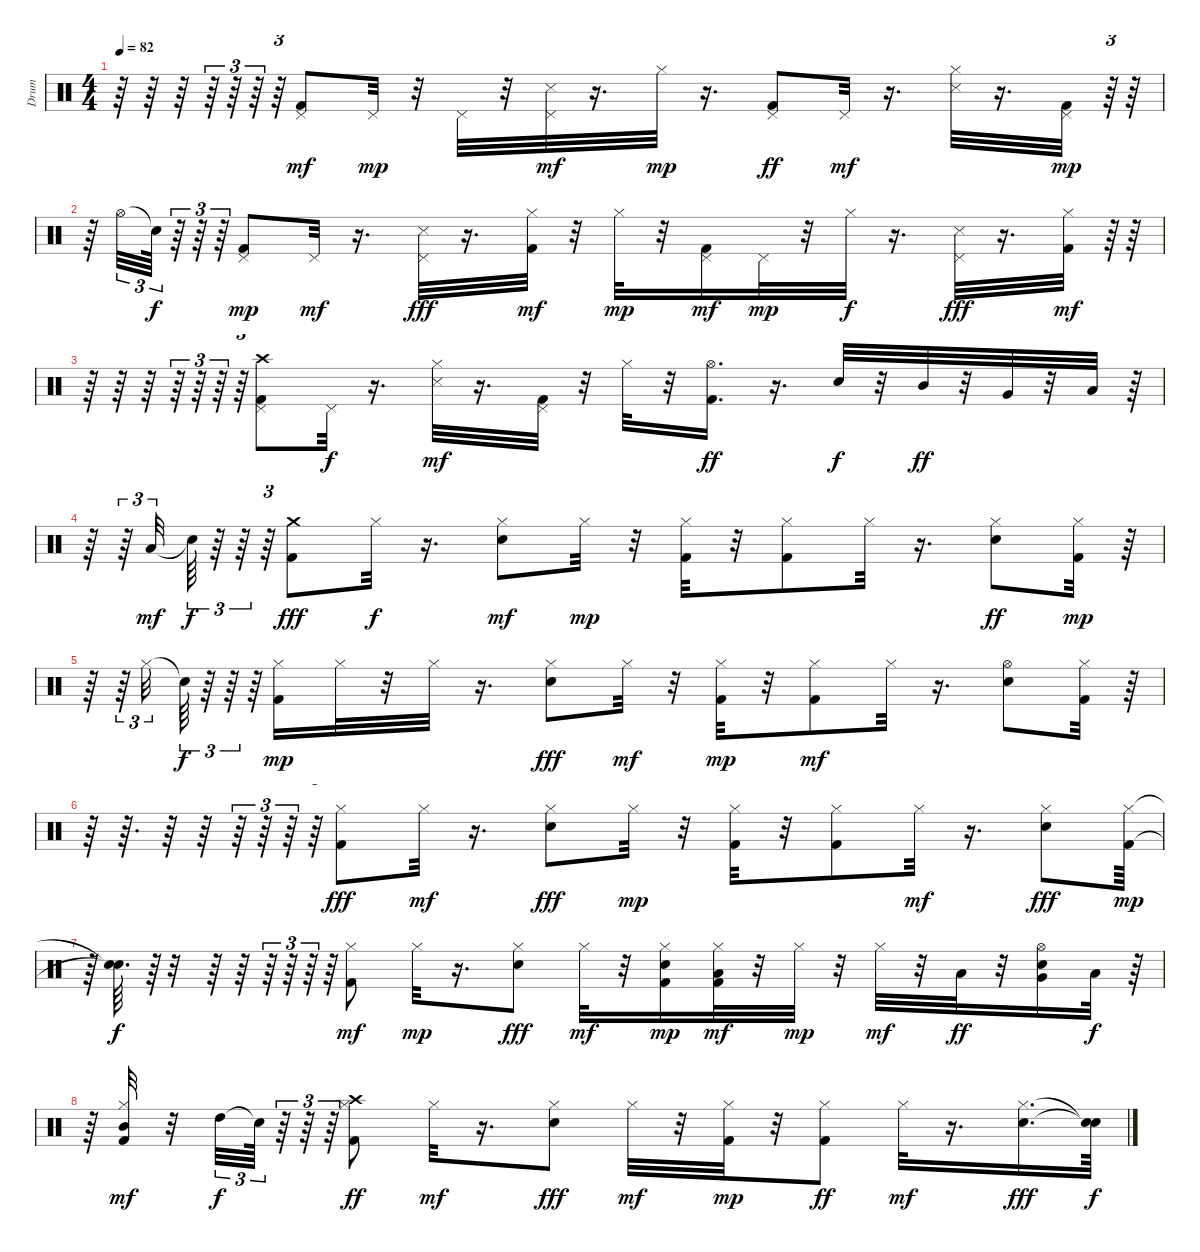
\track ("Drum" "Drum") {instrument percussion}
\staff {score}
\articulation defaults
\ts (4 4)
\tempo 82
\clef neutral
\ks c
r.64{dy mp} r.64 r.64 r.64{tu (3 2)} r.64{tu (3 2)} r.64{tu (3 2)} r.64{tu (3 2)} ("Kick (hit) 2" "Pedal Hi-Hat (hit)").8{dy mf} "Pedal Hi-Hat (hit)".32{dy mp} r.32 "Pedal Hi-Hat (hit)".32 r.32 ("Snare (side stick) 3" "Pedal Hi-Hat (hit)").32{dy mf} r.16{d} "Hi-Hat (closed)".32{dy mp} r.16{d} ("Kick (hit) 2" "Pedal Hi-Hat (hit)").8{dy ff} "Pedal Hi-Hat (hit)".32{dy mf} r.16{d} ("Snare (side stick) 3" "Hi-Hat (closed)").32 r.16{d} ("Kick (hit) 2" "Pedal Hi-Hat (hit)").32{dy mp} r.64{tu (3 2)} r.64 |
r.64 "Hi-Hat (open)".32{tu (3 2)} "Snare (hit)"{t}.64{tu (3 2) dy f} r.64{tu (3 2)} r.64{tu (3 2)} r.64{tu (3 2)} ("Kick (hit) 2" "Pedal Hi-Hat (hit)").8{dy mp} "Pedal Hi-Hat (hit)".32{dy mf} r.16{d} ("Snare (side stick) 3" "Pedal Hi-Hat (hit)").32{dy fff} r.16{d} ("Kick (hit) 2" "Hi-Hat (closed)").32{dy mf} r.32 "Hi-Hat (closed)".32{dy mp} r.32 ("Kick (hit) 2" "Pedal Hi-Hat (hit)").16{dy mf} "Pedal Hi-Hat (hit)".32{dy mp} r.32 "Hi-Hat (closed)".32{dy f} r.16{d} ("Snare (side stick) 3" "Pedal Hi-Hat (hit)").32{dy fff} r.16{d} ("Kick (hit) 2" "Hi-Hat (closed)").32{dy mf} r.64{tu (3 2)} r.64 |
r.64 r.64 r.64 r.64{tu (3 2)} r.64{tu (3 2)} r.64{tu (3 2)} r.64{tu (3 2)} ("Kick (hit) 2" "Pedal Hi-Hat (hit)" "Crash high (hit)").8 "Pedal Hi-Hat (hit)".32{dy f} r.16{d} ("Snare (side stick) 3" "Hi-Hat (closed)").32{dy mf} r.16{d} ("Kick (hit) 2" "Pedal Hi-Hat (hit)").32 r.32 "Hi-Hat (closed)".32 r.32 ("Kick (hit) 2" "Hi-Hat (open)").16{d dy ff} r.16{d} "Electric Snare (hit)".32{dy f} r.32 "Mid Tom (hit)".32{dy ff} r.32 "Very Low Tom (hit)".32 r.32 "Low Tom (hit)".32 r.64 |
r.64 r.64{tu (3 2)} "Low Floor Tom (hit)".32{tu (3 2) dy mf} "Snare (hit)"{t}.64{tu (3 2) dy f} r.64{tu (3 2)} r.64{tu (3 2)} r.64{tu (3 2)} ("Kick (hit) 2" "Crash medium (hit)").8{dy fff} "Hi-Hat (closed)".32{dy f} r.16{d} ("Electric Snare (hit)" "Hi-Hat (closed)").8{dy mf} "Hi-Hat (closed)".32{dy mp} r.32 ("Kick (hit) 2" "Hi-Hat (closed)").32 r.32 ("Kick (hit) 2" "Hi-Hat (closed)").8 "Hi-Hat (closed)".32 r.16{d} ("Electric Snare (hit)" "Hi-Hat (closed)").8{dy ff} ("Kick (hit) 2" "Hi-Hat (closed)").32{dy mp} r.64 |
r.64 r.64{tu (3 2)} "Hi-Hat (closed)".32{tu (3 2)} "Snare (hit)"{t}.64{tu (3 2) dy f} r.64{tu (3 2)} r.64{tu (3 2)} r.64{tu (3 2)} ("Kick (hit) 2" "Hi-Hat (closed)").16{dy mp} "Hi-Hat (closed)".32 r.32 "Hi-Hat (closed)".32 r.16{d} ("Electric Snare (hit)" "Hi-Hat (closed)").8{dy fff} "Hi-Hat (closed)".32{dy mf} r.32 ("Kick (hit) 2" "Hi-Hat (closed)").32{dy mp} r.32 ("Kick (hit) 2" "Hi-Hat (closed)").8{dy mf} "Hi-Hat (closed)".32 r.16{d} ("Electric Snare (hit)" "Hi-Hat (open)").8 ("Kick (hit) 2" "Hi-Hat (closed)").32 r.64 |
r.64 r.64{d} r.64 r.64 r.64{tu (3 2)} r.64{tu (3 2)} r.64{tu (3 2)} r.64{tu (3 2)} ("Kick (hit) 2" "Hi-Hat (closed)").8{dy fff} "Hi-Hat (closed)".32{dy mf} r.16{d} ("Electric Snare (hit)" "Hi-Hat (closed)").8{dy fff} "Hi-Hat (closed)".32{dy mp} r.32 ("Kick (hit) 2" "Hi-Hat (closed)").32 r.32 ("Kick (hit) 2" "Hi-Hat (closed)").8 "Hi-Hat (closed)".32{dy mf} r.16{d} ("Electric Snare (hit)" "Hi-Hat (closed)").8{dy fff} ("Kick (hit) 2" "Hi-Hat (closed)").64{dy mp} |
r.64 ("Snare (hit)"{t} "Snare (hit)"{t}).64{d dy f} r.64{tu (3 2)} r.32 r.64 r.64 r.64{tu (3 2)} r.64{tu (3 2)} r.64{tu (3 2)} r.64{tu (3 2)} ("Kick (hit) 2" "Hi-Hat (closed)").8{dy mf} "Hi-Hat (closed)".32{dy mp} r.16{d} ("Electric Snare (hit)" "Hi-Hat (closed)").8{dy fff} "Hi-Hat (closed)".32{dy mf} r.32 ("Kick (hit) 2" "Electric Snare (hit)" "Hi-Hat (closed)").16{dy mp} ("Kick (hit) 2" "Low Floor Tom (hit)" "Hi-Hat (closed)").32{dy mf} r.32 "Hi-Hat (closed)".32{dy mp} r.32 "Hi-Hat (closed)".32{dy mf} r.32 "Low Tom (hit)".32{dy ff} r.32 ("Electric Snare (hit)" "Very Low Tom (hit)" "Hi-Hat (open)").16 "Low Tom (hit)".32{dy f} r.64 |
r.64 ("Kick (hit) 2" "Hi-Hat (closed)" "Mid Tom (hit)").32{dy mf} r.32 "High Tom (hit)".32{tu (3 2) dy f} "Snare (hit)"{t}.64{tu (3 2)} r.64{tu (3 2)} r.64{tu (3 2)} r.64{tu (3 2)} ("Kick (hit) 2" "Hi-Hat (closed)" "Crash high (hit)").8{dy ff} "Hi-Hat (closed)".32{dy mf} r.16{d} ("Electric Snare (hit)" "Hi-Hat (closed)").8{dy fff} "Hi-Hat (closed)".32{dy mf} r.32 ("Kick (hit) 2" "Hi-Hat (closed)").32{dy mp} r.32 ("Kick (hit) 2" "Hi-Hat (closed)").8{dy ff} "Hi-Hat (closed)".32{dy mf} r.16{d} ("Electric Snare (hit)" "Hi-Hat (closed)").16{d dy fff} ("Snare (hit)"{t} "Snare (hit)"{t}).64{dy f}
